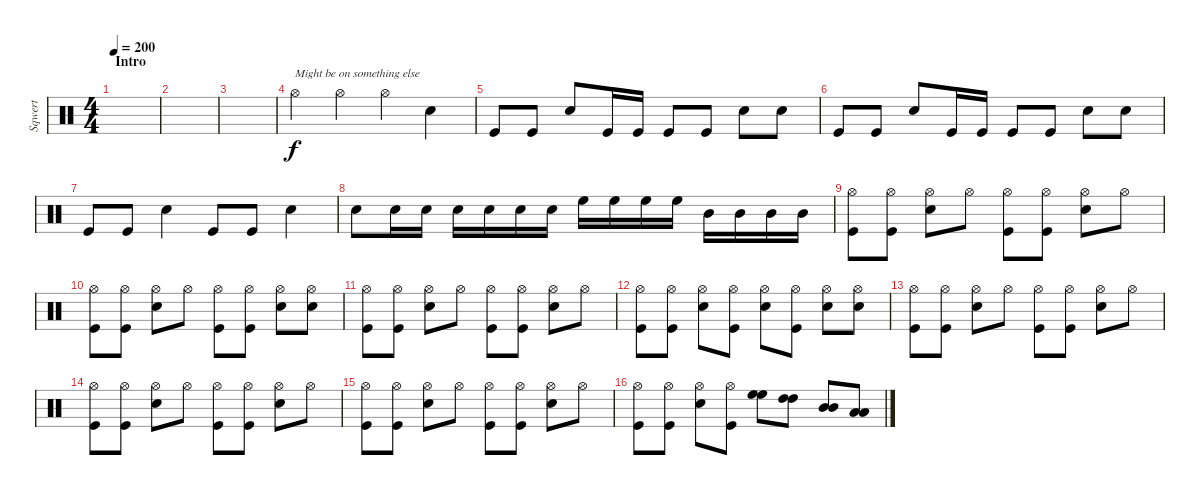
\track ("Sqwert" "Sqwert") {instrument percussion}
\staff {score}
\articulation defaults
\ts (4 4)
\section ("" "Intro")
\tempo 200
\clef neutral
\ks c
|
|
|
"Hi-Hat (open)".4{txt "Might be on something else"} "Hi-Hat (open)".4 "Hi-Hat (open)".4 "Snare (hit) 2".4 |
"Kick (hit)".8 "Kick (hit)".8 "Snare (hit) 2".8 "Kick (hit)".16 "Kick (hit)".16 "Kick (hit)".8 "Kick (hit)".8 "Snare (hit) 2".8 "Snare (hit) 2".8 |
"Kick (hit)".8 "Kick (hit)".8 "Snare (hit) 2".8 "Kick (hit)".16 "Kick (hit)".16 "Kick (hit)".8 "Kick (hit)".8 "Snare (hit) 2".8 "Snare (hit) 2".8 |
"Kick (hit)".8 "Kick (hit)".8 "Snare (hit) 2".4 "Kick (hit)".8 "Kick (hit)".8 "Snare (hit) 2".4 |
"Snare (hit) 2".8 "Snare (hit) 2".16 "Snare (hit) 2".16 "Snare (hit) 2".16 "Snare (hit) 2".16 "Snare (hit) 2".16 "Snare (hit) 2".16 "High Floor Tom (hit)".16 "High Floor Tom (hit)".16 "High Floor Tom (hit)".16 "High Floor Tom (hit)".16 "Mid Tom (hit)".16 "Mid Tom (hit)".16 "Mid Tom (hit)".16 "Mid Tom (hit)".16 |
("Hi-Hat (open)" "Kick (hit)").8 ("Hi-Hat (open)" "Kick (hit)").8 ("Hi-Hat (open)" "Snare (hit) 2").8 "Hi-Hat (open)".8 ("Hi-Hat (open)" "Kick (hit)").8 ("Hi-Hat (open)" "Kick (hit)").8 ("Hi-Hat (open)" "Snare (hit) 2").8 "Hi-Hat (open)".8 |
("Hi-Hat (open)" "Kick (hit)").8 ("Hi-Hat (open)" "Kick (hit)").8 ("Hi-Hat (open)" "Snare (hit) 2").8 "Hi-Hat (open)".8 ("Hi-Hat (open)" "Kick (hit)").8 ("Hi-Hat (open)" "Kick (hit)").8 ("Hi-Hat (open)" "Snare (hit) 2").8 ("Hi-Hat (open)" "Snare (hit) 2").8 |
("Hi-Hat (open)" "Kick (hit)").8 ("Hi-Hat (open)" "Kick (hit)").8 ("Hi-Hat (open)" "Snare (hit) 2").8 "Hi-Hat (open)".8 ("Hi-Hat (open)" "Kick (hit)").8 ("Hi-Hat (open)" "Kick (hit)").8 ("Hi-Hat (open)" "Snare (hit) 2").8 "Hi-Hat (open)".8 |
("Hi-Hat (open)" "Kick (hit)").8 ("Hi-Hat (open)" "Kick (hit)").8 ("Hi-Hat (open)" "Snare (hit) 2").8 ("Hi-Hat (open)" "Kick (hit)").8 ("Hi-Hat (open)" "Snare (hit) 2").8 ("Hi-Hat (open)" "Kick (hit)").8 ("Hi-Hat (open)" "Snare (hit) 2").8 ("Hi-Hat (open)" "Snare (hit) 2").8 |
("Hi-Hat (open)" "Kick (hit)").8 ("Hi-Hat (open)" "Kick (hit)").8 ("Hi-Hat (open)" "Snare (hit) 2").8 "Hi-Hat (open)".8 ("Hi-Hat (open)" "Kick (hit)").8 ("Hi-Hat (open)" "Kick (hit)").8 ("Hi-Hat (open)" "Snare (hit) 2").8 "Hi-Hat (open)".8 |
("Hi-Hat (open)" "Kick (hit)").8 ("Hi-Hat (open)" "Kick (hit)").8 ("Hi-Hat (open)" "Snare (hit) 2").8 "Hi-Hat (open)".8 ("Hi-Hat (open)" "Kick (hit)").8 ("Hi-Hat (open)" "Kick (hit)").8 ("Hi-Hat (open)" "Snare (hit) 2").8 "Hi-Hat (open)".8 |
("Hi-Hat (open)" "Kick (hit)").8 ("Hi-Hat (open)" "Kick (hit)").8 ("Hi-Hat (open)" "Snare (hit) 2").8 "Hi-Hat (open)".8 ("Hi-Hat (open)" "Kick (hit)").8 ("Hi-Hat (open)" "Kick (hit)").8 ("Hi-Hat (open)" "Snare (hit) 2").8 "Hi-Hat (open)".8 |
("Hi-Hat (open)" "Kick (hit)").8 ("Hi-Hat (open)" "Kick (hit)").8 ("Hi-Hat (open)" "Snare (hit) 2").8 ("Hi-Hat (open)" "Kick (hit)").8 ("High Floor Tom (hit)" "High Floor Tom (hit)").8 ("High Tom (hit)" "High Tom (hit)").8 ("Mid Tom (hit)" "Mid Tom (hit)").8 ("Low Tom (hit)" "Low Tom (hit)").8
